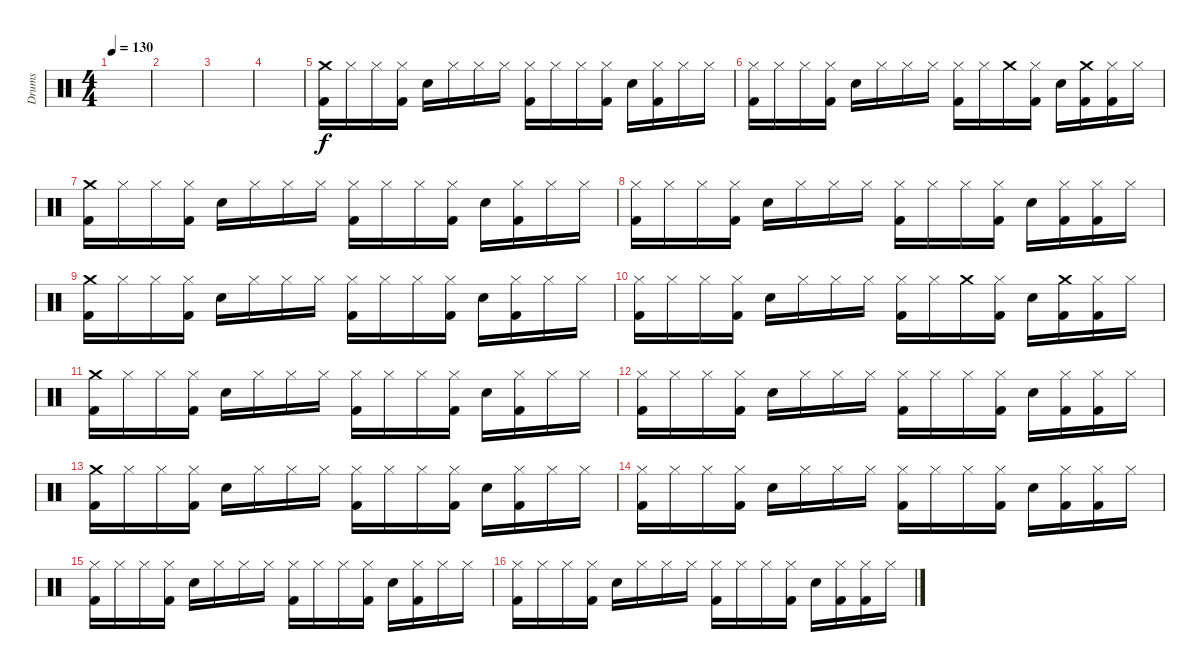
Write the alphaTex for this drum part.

\track ("Drums" "Drums") {instrument percussion}
\staff {score}
\articulation defaults
\ts (4 4)
\tempo 130
\clef neutral
\ks c
|
|
|
|
("Crash medium (hit)" "Kick (hit) 2").16 "Hi-Hat (closed)".16 "Hi-Hat (closed)".16 ("Hi-Hat (closed)" "Kick (hit) 2").16 "Snare (hit) 2".16 "Hi-Hat (closed)".16 "Hi-Hat (closed)".16 "Hi-Hat (closed)".16 ("Hi-Hat (closed)" "Kick (hit) 2").16 "Hi-Hat (closed)".16 "Hi-Hat (closed)".16 ("Hi-Hat (closed)" "Kick (hit) 2").16 "Snare (hit) 2".16 ("Hi-Hat (closed)" "Kick (hit) 2").16 "Hi-Hat (closed)".16 "Hi-Hat (closed)".16 |
("Hi-Hat (closed)" "Kick (hit) 2").16 "Hi-Hat (closed)".16 "Hi-Hat (closed)".16 ("Hi-Hat (closed)" "Kick (hit) 2").16 "Snare (hit) 2".16 "Hi-Hat (closed)".16 "Hi-Hat (closed)".16 "Hi-Hat (closed)".16 ("Hi-Hat (closed)" "Kick (hit) 2").16 "Hi-Hat (closed)".16 "Crash medium (hit)".16 ("Hi-Hat (closed)" "Kick (hit) 2").16 "Snare (hit) 2".16 ("Crash medium (hit)" "Kick (hit) 2").16 ("Hi-Hat (closed)" "Kick (hit) 2").16 "Hi-Hat (closed)".16 |
("Crash medium (hit)" "Kick (hit) 2").16 "Hi-Hat (closed)".16 "Hi-Hat (closed)".16 ("Hi-Hat (closed)" "Kick (hit) 2").16 "Snare (hit) 2".16 "Hi-Hat (closed)".16 "Hi-Hat (closed)".16 "Hi-Hat (closed)".16 ("Hi-Hat (closed)" "Kick (hit) 2").16 "Hi-Hat (closed)".16 "Hi-Hat (closed)".16 ("Hi-Hat (closed)" "Kick (hit) 2").16 "Snare (hit) 2".16 ("Hi-Hat (closed)" "Kick (hit) 2").16 "Hi-Hat (closed)".16 "Hi-Hat (closed)".16 |
("Hi-Hat (closed)" "Kick (hit) 2").16 "Hi-Hat (closed)".16 "Hi-Hat (closed)".16 ("Hi-Hat (closed)" "Kick (hit) 2").16 "Snare (hit) 2".16 "Hi-Hat (closed)".16 "Hi-Hat (closed)".16 "Hi-Hat (closed)".16 ("Hi-Hat (closed)" "Kick (hit) 2").16 "Hi-Hat (closed)".16 "Hi-Hat (closed)".16 ("Hi-Hat (closed)" "Kick (hit) 2").16 "Snare (hit) 2".16 ("Hi-Hat (closed)" "Kick (hit) 2").16 ("Hi-Hat (closed)" "Kick (hit) 2").16 "Hi-Hat (closed)".16 |
("Crash medium (hit)" "Kick (hit) 2").16 "Hi-Hat (closed)".16 "Hi-Hat (closed)".16 ("Hi-Hat (closed)" "Kick (hit) 2").16 "Snare (hit) 2".16 "Hi-Hat (closed)".16 "Hi-Hat (closed)".16 "Hi-Hat (closed)".16 ("Hi-Hat (closed)" "Kick (hit) 2").16 "Hi-Hat (closed)".16 "Hi-Hat (closed)".16 ("Hi-Hat (closed)" "Kick (hit) 2").16 "Snare (hit) 2".16 ("Hi-Hat (closed)" "Kick (hit) 2").16 "Hi-Hat (closed)".16 "Hi-Hat (closed)".16 |
("Hi-Hat (closed)" "Kick (hit) 2").16 "Hi-Hat (closed)".16 "Hi-Hat (closed)".16 ("Hi-Hat (closed)" "Kick (hit) 2").16 "Snare (hit) 2".16 "Hi-Hat (closed)".16 "Hi-Hat (closed)".16 "Hi-Hat (closed)".16 ("Hi-Hat (closed)" "Kick (hit) 2").16 "Hi-Hat (closed)".16 "Crash medium (hit)".16 ("Hi-Hat (closed)" "Kick (hit) 2").16 "Snare (hit) 2".16 ("Crash medium (hit)" "Kick (hit) 2").16 ("Hi-Hat (closed)" "Kick (hit) 2").16 "Hi-Hat (closed)".16 |
("Crash medium (hit)" "Kick (hit) 2").16 "Hi-Hat (closed)".16 "Hi-Hat (closed)".16 ("Hi-Hat (closed)" "Kick (hit) 2").16 "Snare (hit) 2".16 "Hi-Hat (closed)".16 "Hi-Hat (closed)".16 "Hi-Hat (closed)".16 ("Hi-Hat (closed)" "Kick (hit) 2").16 "Hi-Hat (closed)".16 "Hi-Hat (closed)".16 ("Hi-Hat (closed)" "Kick (hit) 2").16 "Snare (hit) 2".16 ("Hi-Hat (closed)" "Kick (hit) 2").16 "Hi-Hat (closed)".16 "Hi-Hat (closed)".16 |
("Hi-Hat (closed)" "Kick (hit) 2").16 "Hi-Hat (closed)".16 "Hi-Hat (closed)".16 ("Hi-Hat (closed)" "Kick (hit) 2").16 "Snare (hit) 2".16 "Hi-Hat (closed)".16 "Hi-Hat (closed)".16 "Hi-Hat (closed)".16 ("Hi-Hat (closed)" "Kick (hit) 2").16 "Hi-Hat (closed)".16 "Hi-Hat (closed)".16 ("Hi-Hat (closed)" "Kick (hit) 2").16 "Snare (hit) 2".16 ("Hi-Hat (closed)" "Kick (hit) 2").16 ("Hi-Hat (closed)" "Kick (hit) 2").16 "Hi-Hat (closed)".16 |
("Crash medium (hit)" "Kick (hit) 2").16 "Hi-Hat (closed)".16 "Hi-Hat (closed)".16 ("Hi-Hat (closed)" "Kick (hit) 2").16 "Snare (hit) 2".16 "Hi-Hat (closed)".16 "Hi-Hat (closed)".16 "Hi-Hat (closed)".16 ("Hi-Hat (closed)" "Kick (hit) 2").16 "Hi-Hat (closed)".16 "Hi-Hat (closed)".16 ("Hi-Hat (closed)" "Kick (hit) 2").16 "Snare (hit) 2".16 ("Hi-Hat (closed)" "Kick (hit) 2").16 "Hi-Hat (closed)".16 "Hi-Hat (closed)".16 |
("Hi-Hat (closed)" "Kick (hit) 2").16 "Hi-Hat (closed)".16 "Hi-Hat (closed)".16 ("Hi-Hat (closed)" "Kick (hit) 2").16 "Snare (hit) 2".16 "Hi-Hat (closed)".16 "Hi-Hat (closed)".16 "Hi-Hat (closed)".16 ("Hi-Hat (closed)" "Kick (hit) 2").16 "Hi-Hat (closed)".16 "Hi-Hat (closed)".16 ("Hi-Hat (closed)" "Kick (hit) 2").16 "Snare (hit) 2".16 ("Hi-Hat (closed)" "Kick (hit) 2").16 ("Hi-Hat (closed)" "Kick (hit) 2").16 "Hi-Hat (closed)".16 |
("Hi-Hat (closed)" "Kick (hit) 2").16 "Hi-Hat (closed)".16 "Hi-Hat (closed)".16 ("Hi-Hat (closed)" "Kick (hit) 2").16 "Snare (hit) 2".16 "Hi-Hat (closed)".16 "Hi-Hat (closed)".16 "Hi-Hat (closed)".16 ("Hi-Hat (closed)" "Kick (hit) 2").16 "Hi-Hat (closed)".16 "Hi-Hat (closed)".16 ("Hi-Hat (closed)" "Kick (hit) 2").16 "Snare (hit) 2".16 ("Hi-Hat (closed)" "Kick (hit) 2").16 "Hi-Hat (closed)".16 "Hi-Hat (closed)".16 |
("Hi-Hat (closed)" "Kick (hit) 2").16 "Hi-Hat (closed)".16 "Hi-Hat (closed)".16 ("Hi-Hat (closed)" "Kick (hit) 2").16 "Snare (hit) 2".16 "Hi-Hat (closed)".16 "Hi-Hat (closed)".16 "Hi-Hat (closed)".16 ("Hi-Hat (closed)" "Kick (hit) 2").16 "Hi-Hat (closed)".16 "Hi-Hat (closed)".16 ("Hi-Hat (closed)" "Kick (hit) 2").16 "Snare (hit) 2".16 ("Hi-Hat (closed)" "Kick (hit) 2").16 ("Hi-Hat (closed)" "Kick (hit) 2").16 "Hi-Hat (closed)".16
